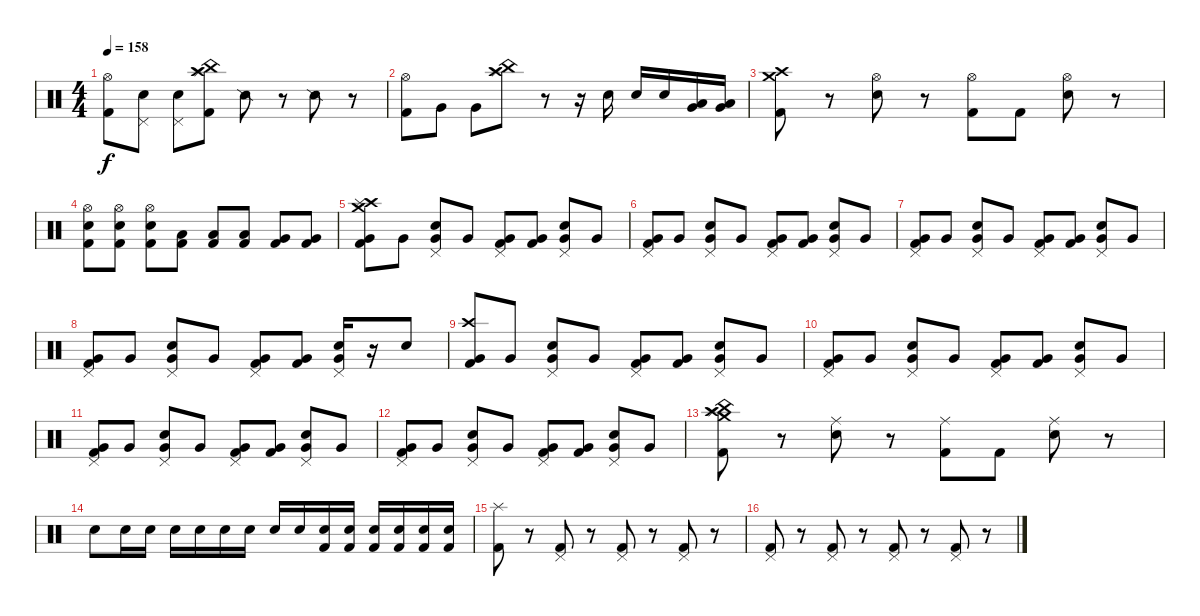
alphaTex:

\track "" {instrument percussion}
\staff {score}
\articulation defaults
\ts (4 4)
\tempo 158
\clef neutral
\ks c
("Hi-Hat (open)" "Kick (hit) 2").8{dy f} ("Electric Snare (hit)" "Pedal Hi-Hat (hit)").8 ("Electric Snare (hit)" "Pedal Hi-Hat (hit)").8 ("Crash high (hit)" "Splash (hit)" "China (hit)" "Kick (hit) 2").8 "Snare (side stick) 2".8 r.8 "Snare (side stick) 2".8 r.8 |
("Hi-Hat (open)" "Kick (hit) 2").8 "Very Low Tom (hit)".8 "Very Low Tom (hit)".8 ("Crash high (hit)" "Splash (hit)" "China (hit)").8 r.8 r.16 "Electric Snare (hit)".16 "Electric Snare (hit)".16 "Electric Snare (hit)".16 ("Low Tom (hit)" "Very Low Tom (hit)").16 ("Low Floor Tom (hit)" "Very Low Tom (hit)").16 |
("Crash high (hit)" "Crash medium (hit)" "Kick (hit) 2").8 r.8 ("Hi-Hat (open)" "Electric Snare (hit)").8 r.8 ("Hi-Hat (open)" "Kick (hit) 2").8 "Kick (hit) 2".8 ("Hi-Hat (open)" "Electric Snare (hit)").8 r.8 |
("Hi-Hat (open)" "Electric Snare (hit)" "Kick (hit) 2").8 ("Hi-Hat (open)" "Electric Snare (hit)" "Kick (hit) 2").8 ("Hi-Hat (open)" "Electric Snare (hit)" "Kick (hit) 2").8 ("Low Tom (hit)" "Kick (hit) 2").8 ("Low Tom (hit)" "Kick (hit) 2").8 ("Low Tom (hit)" "Kick (hit) 2").8 ("Very Low Tom (hit)" "Kick (hit) 2").8 ("Very Low Tom (hit)" "Kick (hit) 2").8 |
("Crash high (hit)" "Splash (hit)" "Crash medium (hit)" "Kick (hit) 2" "Very Low Tom (hit)").8 "Very Low Tom (hit)".8 ("Pedal Hi-Hat (hit)" "Electric Snare (hit)" "Very Low Tom (hit)").8 "Very Low Tom (hit)".8 ("Pedal Hi-Hat (hit)" "Kick (hit) 2" "Very Low Tom (hit)").8 ("Kick (hit) 2" "Very Low Tom (hit)").8 ("Pedal Hi-Hat (hit)" "Electric Snare (hit)" "Very Low Tom (hit)").8 "Very Low Tom (hit)".8 |
("Pedal Hi-Hat (hit)" "Kick (hit) 2" "Very Low Tom (hit)").8 "Very Low Tom (hit)".8 ("Pedal Hi-Hat (hit)" "Electric Snare (hit)" "Very Low Tom (hit)").8 "Very Low Tom (hit)".8 ("Pedal Hi-Hat (hit)" "Kick (hit) 2" "Very Low Tom (hit)").8 ("Kick (hit) 2" "Very Low Tom (hit)").8 ("Pedal Hi-Hat (hit)" "Electric Snare (hit)" "Very Low Tom (hit)").8 "Very Low Tom (hit)".8 |
("Pedal Hi-Hat (hit)" "Kick (hit) 2" "Very Low Tom (hit)").8 "Very Low Tom (hit)".8 ("Pedal Hi-Hat (hit)" "Electric Snare (hit)" "Very Low Tom (hit)").8 "Very Low Tom (hit)".8 ("Pedal Hi-Hat (hit)" "Kick (hit) 2" "Very Low Tom (hit)").8 ("Kick (hit) 2" "Very Low Tom (hit)").8 ("Pedal Hi-Hat (hit)" "Electric Snare (hit)" "Very Low Tom (hit)").8 "Very Low Tom (hit)".8 |
("Pedal Hi-Hat (hit)" "Kick (hit) 2" "Very Low Tom (hit)").8 "Very Low Tom (hit)".8 ("Pedal Hi-Hat (hit)" "Electric Snare (hit)" "Very Low Tom (hit)").8 "Very Low Tom (hit)".8 ("Pedal Hi-Hat (hit)" "Kick (hit) 2" "Very Low Tom (hit)").8 ("Kick (hit) 2" "Very Low Tom (hit)").8 ("Pedal Hi-Hat (hit)" "Electric Snare (hit)" "Very Low Tom (hit)").16 r.16 "Electric Snare (hit)".8 |
("Crash high (hit)" "Kick (hit) 2" "Very Low Tom (hit)").8 "Very Low Tom (hit)".8 ("Pedal Hi-Hat (hit)" "Electric Snare (hit)" "Very Low Tom (hit)").8 "Very Low Tom (hit)".8 ("Pedal Hi-Hat (hit)" "Kick (hit) 2" "Very Low Tom (hit)").8 ("Kick (hit) 2" "Very Low Tom (hit)").8 ("Pedal Hi-Hat (hit)" "Electric Snare (hit)" "Very Low Tom (hit)").8 "Very Low Tom (hit)".8 |
("Pedal Hi-Hat (hit)" "Kick (hit) 2" "Very Low Tom (hit)").8 "Very Low Tom (hit)".8 ("Pedal Hi-Hat (hit)" "Electric Snare (hit)" "Very Low Tom (hit)").8 "Very Low Tom (hit)".8 ("Pedal Hi-Hat (hit)" "Kick (hit) 2" "Very Low Tom (hit)").8 ("Kick (hit) 2" "Very Low Tom (hit)").8 ("Pedal Hi-Hat (hit)" "Electric Snare (hit)" "Very Low Tom (hit)").8 "Very Low Tom (hit)".8 |
("Pedal Hi-Hat (hit)" "Kick (hit) 2" "Very Low Tom (hit)").8 "Very Low Tom (hit)".8 ("Pedal Hi-Hat (hit)" "Electric Snare (hit)" "Very Low Tom (hit)").8 "Very Low Tom (hit)".8 ("Pedal Hi-Hat (hit)" "Kick (hit) 2" "Very Low Tom (hit)").8 ("Kick (hit) 2" "Very Low Tom (hit)").8 ("Pedal Hi-Hat (hit)" "Electric Snare (hit)" "Very Low Tom (hit)").8 "Very Low Tom (hit)".8 |
("Pedal Hi-Hat (hit)" "Kick (hit) 2" "Very Low Tom (hit)").8 "Very Low Tom (hit)".8 ("Pedal Hi-Hat (hit)" "Electric Snare (hit)" "Very Low Tom (hit)").8 "Very Low Tom (hit)".8 ("Pedal Hi-Hat (hit)" "Kick (hit) 2" "Very Low Tom (hit)").8 ("Kick (hit) 2" "Very Low Tom (hit)").8 ("Pedal Hi-Hat (hit)" "Electric Snare (hit)" "Very Low Tom (hit)").8 "Very Low Tom (hit)".8 |
("Crash high (hit)" "Crash medium (hit)" "Splash (hit)" "China (hit)" "Kick (hit) 2").8 r.8 ("Ride (middle)" "Electric Snare (hit)").8 r.8 ("Ride (middle)" "Kick (hit) 2").8 "Kick (hit) 2".8 ("Ride (middle)" "Electric Snare (hit)").8 r.8 |
"Electric Snare (hit)".8 "Electric Snare (hit)".16 "Electric Snare (hit)".16 "Electric Snare (hit)".16 "Electric Snare (hit)".16 "Electric Snare (hit)".16 "Electric Snare (hit)".16 "Electric Snare (hit)".16 "Electric Snare (hit)".16 ("Electric Snare (hit)" "Kick (hit) 2").16 ("Electric Snare (hit)" "Kick (hit) 2").16 ("Electric Snare (hit)" "Kick (hit) 2").16 ("Electric Snare (hit)" "Kick (hit) 2").16 ("Electric Snare (hit)" "Kick (hit) 2").16 ("Electric Snare (hit)" "Kick (hit) 2").16 |
("Splash (hit)" "Kick (hit) 2").8 r.8 ("Pedal Hi-Hat (hit)" "Kick (hit) 2").8 r.8 ("Pedal Hi-Hat (hit)" "Kick (hit) 2").8 r.8 ("Pedal Hi-Hat (hit)" "Kick (hit) 2").8 r.8 |
("Pedal Hi-Hat (hit)" "Kick (hit) 2").8 r.8 ("Pedal Hi-Hat (hit)" "Kick (hit) 2").8 r.8 ("Pedal Hi-Hat (hit)" "Kick (hit) 2").8 r.8 ("Pedal Hi-Hat (hit)" "Kick (hit) 2").8 r.8
